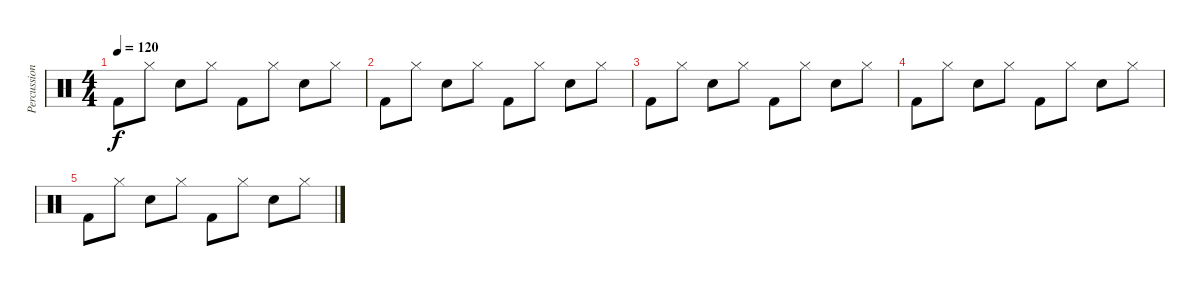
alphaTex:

\track ("Percussions" "Percussion") {instrument percussion}
\staff {score}
\articulation defaults
\ts (4 4)
\tempo 120
\clef neutral
\ks c "Kick (hit) 2".8{dy f} "Hi-Hat (closed)".8 "Snare (hit) 2".8 "Hi-Hat (closed)".8 "Kick (hit) 2".8 "Hi-Hat (closed)".8 "Snare (hit) 2".8 "Hi-Hat (closed)".8
|
"Kick (hit) 2".8 "Hi-Hat (closed)".8 "Snare (hit) 2".8 "Hi-Hat (closed)".8 "Kick (hit) 2".8 "Hi-Hat (closed)".8 "Snare (hit) 2".8 "Hi-Hat (closed)".8 |
"Kick (hit) 2".8 "Hi-Hat (closed)".8 "Snare (hit) 2".8 "Hi-Hat (closed)".8 "Kick (hit) 2".8 "Hi-Hat (closed)".8 "Snare (hit) 2".8 "Hi-Hat (closed)".8 |
"Kick (hit) 2".8 "Hi-Hat (closed)".8 "Snare (hit) 2".8 "Hi-Hat (closed)".8 "Kick (hit) 2".8 "Hi-Hat (closed)".8 "Snare (hit) 2".8 "Hi-Hat (closed)".8 |
"Kick (hit) 2".8 "Hi-Hat (closed)".8 "Snare (hit) 2".8 "Hi-Hat (closed)".8 "Kick (hit) 2".8 "Hi-Hat (closed)".8 "Snare (hit) 2".8 "Hi-Hat (closed)".8
